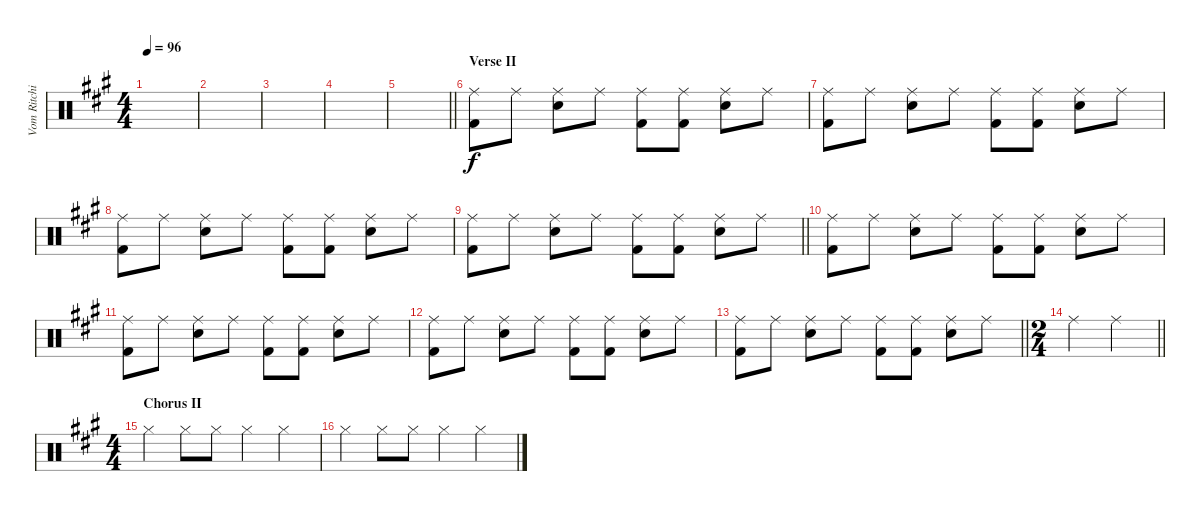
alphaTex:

\track ("Vom Ritchie" "Vom Ritchi") {instrument percussion}
\staff {score}
\articulation defaults
\ts (4 4)
\tempo 96
\clef neutral
\ks a
|
|
|
|
\barLineRight lightlight
|
\section ("" "Verse II")
("Ride (middle)" "Kick (hit) 2").8 "Ride (middle)".8 ("Ride (middle)" "Snare (hit) 2").8 "Ride (middle)".8 ("Ride (middle)" "Kick (hit) 2").8 ("Ride (middle)" "Kick (hit) 2").8 ("Ride (middle)" "Snare (hit) 2").8 "Ride (middle)".8 |
("Ride (middle)" "Kick (hit) 2").8 "Ride (middle)".8 ("Ride (middle)" "Snare (hit) 2").8 "Ride (middle)".8 ("Ride (middle)" "Kick (hit) 2").8 ("Ride (middle)" "Kick (hit) 2").8 ("Ride (middle)" "Snare (hit) 2").8 "Ride (middle)".8 |
("Ride (middle)" "Kick (hit) 2").8 "Ride (middle)".8 ("Ride (middle)" "Snare (hit) 2").8 "Ride (middle)".8 ("Ride (middle)" "Kick (hit) 2").8 ("Ride (middle)" "Kick (hit) 2").8 ("Ride (middle)" "Snare (hit) 2").8 "Ride (middle)".8 |
\barLineRight lightlight
("Ride (middle)" "Kick (hit) 2").8 "Ride (middle)".8 ("Ride (middle)" "Snare (hit) 2").8 "Ride (middle)".8 ("Ride (middle)" "Kick (hit) 2").8 ("Ride (middle)" "Kick (hit) 2").8 ("Ride (middle)" "Snare (hit) 2").8 "Ride (middle)".8 |
("Ride (middle)" "Kick (hit) 2").8 "Ride (middle)".8 ("Ride (middle)" "Snare (hit) 2").8 "Ride (middle)".8 ("Ride (middle)" "Kick (hit) 2").8 ("Ride (middle)" "Kick (hit) 2").8 ("Ride (middle)" "Snare (hit) 2").8 "Ride (middle)".8 |
("Ride (middle)" "Kick (hit) 2").8 "Ride (middle)".8 ("Ride (middle)" "Snare (hit) 2").8 "Ride (middle)".8 ("Ride (middle)" "Kick (hit) 2").8 ("Ride (middle)" "Kick (hit) 2").8 ("Ride (middle)" "Snare (hit) 2").8 "Ride (middle)".8 |
("Ride (middle)" "Kick (hit) 2").8 "Ride (middle)".8 ("Ride (middle)" "Snare (hit) 2").8 "Ride (middle)".8 ("Ride (middle)" "Kick (hit) 2").8 ("Ride (middle)" "Kick (hit) 2").8 ("Ride (middle)" "Snare (hit) 2").8 "Ride (middle)".8 |
\barLineRight lightlight
("Ride (middle)" "Kick (hit) 2").8 "Ride (middle)".8 ("Ride (middle)" "Snare (hit) 2").8 "Ride (middle)".8 ("Ride (middle)" "Kick (hit) 2").8 ("Ride (middle)" "Kick (hit) 2").8 ("Ride (middle)" "Snare (hit) 2").8 "Ride (middle)".8 |
\ts (2 4)
\barLineRight lightlight "Ride (middle)".4 "Ride (middle)".4
|
\ts (4 4)
\section ("" "Chorus II")
"Hi-Hat (closed)".4 "Hi-Hat (closed)".8 "Hi-Hat (closed)".8 "Hi-Hat (closed)".4 "Hi-Hat (closed)".4 |
"Hi-Hat (closed)".4 "Hi-Hat (closed)".8 "Hi-Hat (closed)".8 "Hi-Hat (closed)".4 "Hi-Hat (closed)".4
